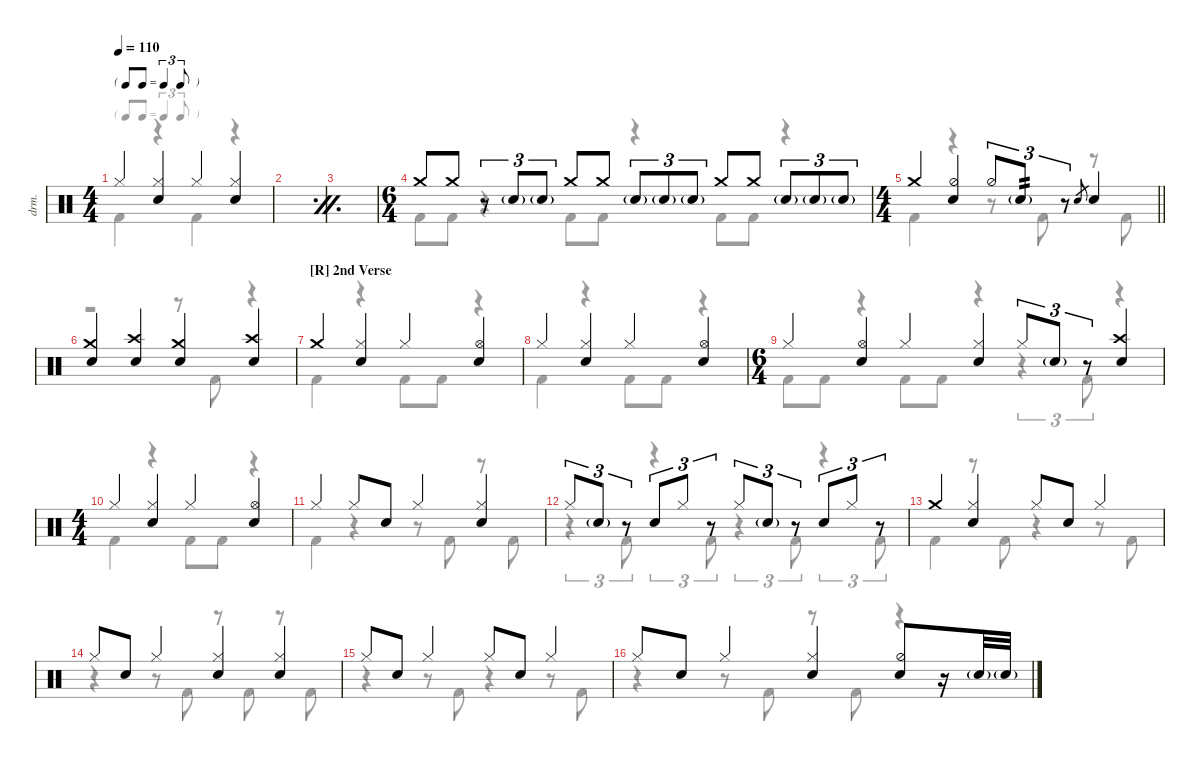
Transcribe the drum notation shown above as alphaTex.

\defaultSystemsLayout 4
\hideDynamics
\bracketExtendMode nobrackets
\track ("Drums" "drm.") {instrument percussion}
\staff {score}
\articulation defaults
\voice
\ts (4 4)
\tf triplet8th
\tempo 110
\clef neutral
\ks c "Hi-Hat (closed)".4{dy mf}
("Hi-Hat (closed)" "Snare (hit) 2").4 "Hi-Hat (closed)".4 ("Hi-Hat (closed)" "Snare (hit) 2").4 |
\simile firstofdouble
|
\simile secondofdouble
|
\ts (6 4)
\beaming (8 6 6)
\simile none "Crash medium (hit)".8 "Crash medium (hit)".8
r.8{tu (3 2)} "Snare (hit) 2"{g}.8{tu (3 2)} "Snare (hit) 2"{g}.8{tu (3 2)} "Crash medium (hit)".8 "Crash medium (hit)".8 "Snare (hit) 2"{g}.8{tu (3 2)} "Snare (hit) 2"{g}.8{tu (3 2)} "Snare (hit) 2"{g}.8{tu (3 2)} "Crash medium (hit)".8 "Crash medium (hit)".8 "Snare (hit) 2"{g}.8{tu (3 2)} "Snare (hit) 2"{g}.8{tu (3 2)} "Snare (hit) 2"{g}.8{tu (3 2)} |
\ts (4 4)
\beaming (8 2 2 2 2)
\barLineRight lightlight "Crash medium (hit)".4
("Hi-Hat (half)" "Snare (hit) 2").4 "Hi-Hat (half)".8{tu (3 2)} "Snare (hit) 2"{g}.8{tu (3 2) tp 2} r.8{tu (3 2)} "Snare (hit) 2".8{gr} "Snare (hit) 2".4 |
("Snare (hit) 2" "Crash medium (hit)").4 ("Snare (hit) 2" "Crash high (hit)").4 ("Snare (hit) 2" "Crash medium (hit)").4 ("Snare (hit) 2" "Crash high (hit)").4 |
\section ("R" "2nd Verse")
"Crash medium (hit)".4 ("Hi-Hat (closed)" "Snare (hit) 2").4 "Hi-Hat (closed)".4 ("Hi-Hat (open)" "Snare (hit) 2").4 |
"Hi-Hat (closed)".4 ("Hi-Hat (closed)" "Snare (hit) 2").4 "Hi-Hat (closed)".4 ("Hi-Hat (open)" "Snare (hit) 2").4 |
\ts (6 4)
\beaming (8 6 6)
"Hi-Hat (closed)".4 ("Hi-Hat (open)" "Snare (hit) 2").4 "Hi-Hat (closed)".4 ("Hi-Hat (closed)" "Snare (hit) 2").4 "Hi-Hat (closed)".8{tu (3 2)} "Snare (hit) 2"{g}.8{tu (3 2)} r.8{tu (3 2)} ("Crash high (hit)" "Snare (hit) 2").4 |
\ts (4 4)
\beaming (8 2 2 2 2)
"Hi-Hat (closed)".4 ("Hi-Hat (closed)" "Snare (hit) 2").4 "Hi-Hat (closed)".4 ("Hi-Hat (open)" "Snare (hit) 2").4 |
"Hi-Hat (closed)".4 "Hi-Hat (closed)".8 "Snare (hit) 2".8 "Hi-Hat (closed)".4 ("Hi-Hat (closed)" "Snare (hit) 2").4 |
"Hi-Hat (closed)".8{tu (3 2)} "Snare (hit) 2"{g}.8{tu (3 2)} r.8{tu (3 2)} "Snare (hit) 2".8{tu (3 2)} "Hi-Hat (closed)".8{tu (3 2)} r.8{tu (3 2)} "Hi-Hat (closed)".8{tu (3 2)} "Snare (hit) 2"{g}.8{tu (3 2)} r.8{tu (3 2)} "Snare (hit) 2".8{tu (3 2)} "Hi-Hat (closed)".8{tu (3 2)} r.8{tu (3 2)} |
"Crash medium (hit)".4 ("Hi-Hat (closed)" "Snare (hit) 2").4 "Hi-Hat (closed)".8 "Snare (hit) 2".8 "Hi-Hat (closed)".4 |
"Hi-Hat (closed)".8 "Snare (hit) 2".8 "Hi-Hat (closed)".4 ("Hi-Hat (closed)" "Snare (hit) 2").4 ("Hi-Hat (closed)" "Snare (hit) 2").4 |
\scale
0.511205 "Hi-Hat (closed)".8 "Snare (hit) 2".8 "Hi-Hat (closed)".4 "Hi-Hat (closed)".8 "Snare (hit) 2".8 "Hi-Hat (closed)".4 |
\scale
0.488795 "Hi-Hat (closed)".8 "Snare (hit) 2".8 "Hi-Hat (closed)".4 ("Hi-Hat (closed)" "Snare (hit) 2").4 ("Snare (hit) 2" "Hi-Hat (half)").8 r.16 "Snare (hit) 2"{g}.32 "Snare (hit) 2"{g}.32
\voice
\clef neutral
\ottava regular
\simile none
\ks c "Kick (hit) 2".4{dy mf}
r.4 "Kick (hit) 2".4 r.4 |
\simile firstofdouble
|
\simile secondofdouble
|
\simile none "Kick (hit) 2".8 "Kick (hit) 2".8
r.4 "Kick (hit) 2".8 "Kick (hit) 2".8 r.4 "Kick (hit) 2".8 "Kick (hit) 2".8 r.4 |
\barLineRight lightlight "Kick (hit) 2".4
r.4 r.8 "Kick (hit) 2".8 r.8 "Kick (hit) 2".8 |
r.2 r.8 "Kick (hit) 2".8 r.4 |
"Kick (hit) 2".4 r.4 "Kick (hit) 2".8 "Kick (hit) 2".8 r.4 |
"Kick (hit) 2".4 r.4 "Kick (hit) 2".8 "Kick (hit) 2".8 r.4 |
"Kick (hit) 2".8 "Kick (hit) 2".8 r.4 "Kick (hit) 2".8 "Kick (hit) 2".8 r.4 r.4{tu (3 2)} "Kick (hit) 2".8{tu (3 2)} r.4 |
"Kick (hit) 2".4 r.4 "Kick (hit) 2".8 "Kick (hit) 2".8 r.4 |
"Kick (hit) 2".4 r.4 r.8 "Kick (hit) 2".8 r.8 "Kick (hit) 2".8 |
r.4{tu (3 2)} "Kick (hit) 2".8{tu (3 2)} r.4{tu (3 2)} "Kick (hit) 2".8{tu (3 2)} r.4{tu (3 2)} "Kick (hit) 2".8{tu (3 2)} r.4{tu (3 2)} "Kick (hit) 2".8{tu (3 2)} |
"Kick (hit) 2".4 r.8 "Kick (hit) 2".8 r.4 r.8 "Kick (hit) 2".8 |
r.4 r.8 "Kick (hit) 2".8 r.8 "Kick (hit) 2".8 r.8 "Kick (hit) 2".8 |
\scale
0.511205 r.4 r.8 "Kick (hit) 2".8 r.4 r.8 "Kick (hit) 2".8 |
\scale
0.488795 r.4 r.8 "Kick (hit) 2".8 r.8 "Kick (hit) 2".8 r.4
